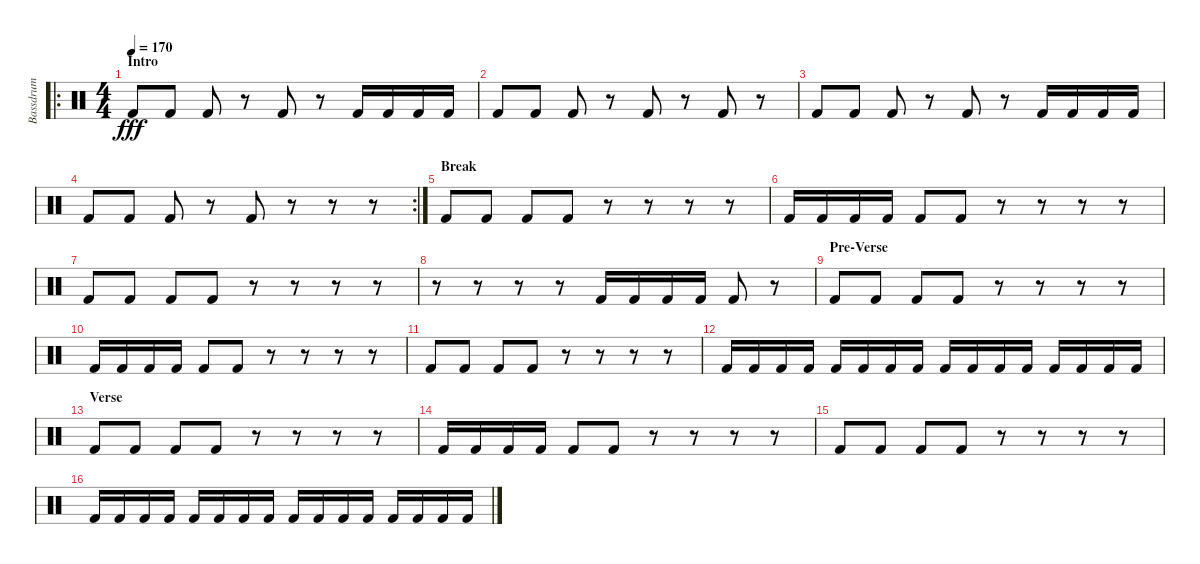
\track ("Bassdrum" "Bassdrum") {instrument percussion}
\staff {score}
\articulation defaults
\ro
\ts (4 4)
\section ("" "Intro")
\tempo 170
\clef neutral
\ks c "Kick (hit) 2".8{dy fff} "Kick (hit) 2".8 "Kick (hit) 2".8
r.8 "Kick (hit) 2".8 r.8 "Kick (hit) 2".16 "Kick (hit) 2".16 "Kick (hit) 2".16 "Kick (hit) 2".16 |
"Kick (hit) 2".8 "Kick (hit) 2".8 "Kick (hit) 2".8 r.8 "Kick (hit) 2".8 r.8 "Kick (hit) 2".8 r.8 |
"Kick (hit) 2".8 "Kick (hit) 2".8 "Kick (hit) 2".8 r.8 "Kick (hit) 2".8 r.8 "Kick (hit) 2".16 "Kick (hit) 2".16 "Kick (hit) 2".16 "Kick (hit) 2".16 |
\rc 2 "Kick (hit) 2".8 "Kick (hit) 2".8 "Kick (hit) 2".8
r.8 "Kick (hit) 2".8 r.8 r.8 r.8 |
\section ("" "Break")
"Kick (hit) 2".8 "Kick (hit) 2".8 "Kick (hit) 2".8 "Kick (hit) 2".8 r.8 r.8 r.8 r.8 |
"Kick (hit) 2".16 "Kick (hit) 2".16 "Kick (hit) 2".16 "Kick (hit) 2".16 "Kick (hit) 2".8 "Kick (hit) 2".8 r.8 r.8 r.8 r.8 |
"Kick (hit) 2".8 "Kick (hit) 2".8 "Kick (hit) 2".8 "Kick (hit) 2".8 r.8 r.8 r.8 r.8 |
r.8 r.8 r.8 r.8 "Kick (hit) 2".16 "Kick (hit) 2".16 "Kick (hit) 2".16 "Kick (hit) 2".16 "Kick (hit) 2".8 r.8 |
\section ("" "Pre-Verse")
"Kick (hit) 2".8 "Kick (hit) 2".8 "Kick (hit) 2".8 "Kick (hit) 2".8 r.8 r.8 r.8 r.8 |
"Kick (hit) 2".16 "Kick (hit) 2".16 "Kick (hit) 2".16 "Kick (hit) 2".16 "Kick (hit) 2".8 "Kick (hit) 2".8 r.8 r.8 r.8 r.8 |
"Kick (hit) 2".8 "Kick (hit) 2".8 "Kick (hit) 2".8 "Kick (hit) 2".8 r.8 r.8 r.8 r.8 |
"Kick (hit) 2".16 "Kick (hit) 2".16 "Kick (hit) 2".16 "Kick (hit) 2".16 "Kick (hit) 2".16 "Kick (hit) 2".16 "Kick (hit) 2".16 "Kick (hit) 2".16 "Kick (hit) 2".16 "Kick (hit) 2".16 "Kick (hit) 2".16 "Kick (hit) 2".16 "Kick (hit) 2".16 "Kick (hit) 2".16 "Kick (hit) 2".16 "Kick (hit) 2".16 |
\section ("" "Verse")
"Kick (hit) 2".8 "Kick (hit) 2".8 "Kick (hit) 2".8 "Kick (hit) 2".8 r.8 r.8 r.8 r.8 |
"Kick (hit) 2".16 "Kick (hit) 2".16 "Kick (hit) 2".16 "Kick (hit) 2".16 "Kick (hit) 2".8 "Kick (hit) 2".8 r.8 r.8 r.8 r.8 |
"Kick (hit) 2".8 "Kick (hit) 2".8 "Kick (hit) 2".8 "Kick (hit) 2".8 r.8 r.8 r.8 r.8 |
"Kick (hit) 2".16 "Kick (hit) 2".16 "Kick (hit) 2".16 "Kick (hit) 2".16 "Kick (hit) 2".16 "Kick (hit) 2".16 "Kick (hit) 2".16 "Kick (hit) 2".16 "Kick (hit) 2".16 "Kick (hit) 2".16 "Kick (hit) 2".16 "Kick (hit) 2".16 "Kick (hit) 2".16 "Kick (hit) 2".16 "Kick (hit) 2".16 "Kick (hit) 2".16
